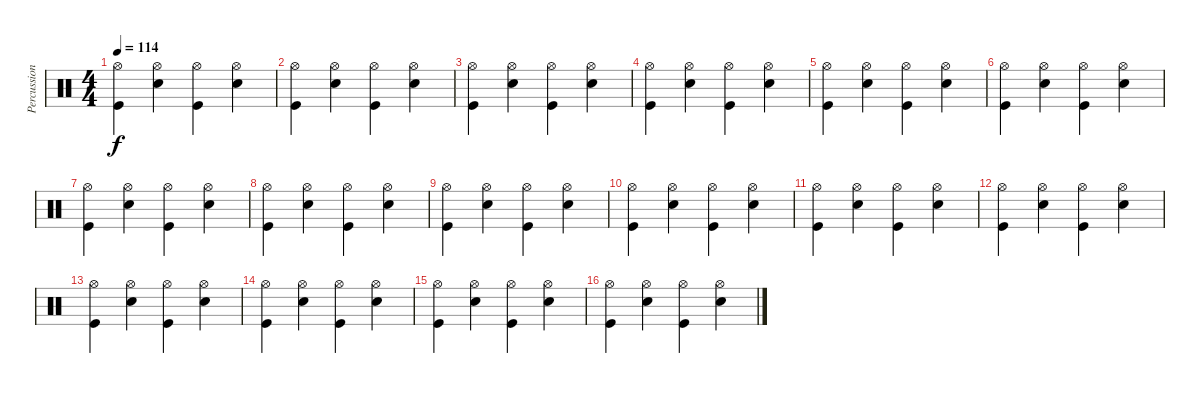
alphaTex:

\track ("Percussion" "Percussion") {solo instrument percussion}
\staff {score}
\articulation defaults
\ts (4 4)
\tempo 114
\clef neutral
\ks c
("Hi-Hat (open)" "Kick (hit)").4{dy f} ("Hi-Hat (open)" "Electric Snare (hit)").4 ("Hi-Hat (open)" "Kick (hit)").4 ("Hi-Hat (open)" "Electric Snare (hit)").4 |
("Hi-Hat (open)" "Kick (hit)").4 ("Hi-Hat (open)" "Electric Snare (hit)").4 ("Hi-Hat (open)" "Kick (hit)").4 ("Hi-Hat (open)" "Electric Snare (hit)").4 |
("Hi-Hat (open)" "Kick (hit)").4 ("Hi-Hat (open)" "Electric Snare (hit)").4 ("Hi-Hat (open)" "Kick (hit)").4 ("Hi-Hat (open)" "Electric Snare (hit)").4 |
("Hi-Hat (open)" "Kick (hit)").4 ("Hi-Hat (open)" "Electric Snare (hit)").4 ("Hi-Hat (open)" "Kick (hit)").4 ("Hi-Hat (open)" "Electric Snare (hit)").4 |
("Hi-Hat (open)" "Kick (hit)").4 ("Hi-Hat (open)" "Electric Snare (hit)").4 ("Hi-Hat (open)" "Kick (hit)").4 ("Hi-Hat (open)" "Electric Snare (hit)").4 |
("Hi-Hat (open)" "Kick (hit)").4 ("Hi-Hat (open)" "Electric Snare (hit)").4 ("Hi-Hat (open)" "Kick (hit)").4 ("Hi-Hat (open)" "Electric Snare (hit)").4 |
("Hi-Hat (open)" "Kick (hit)").4 ("Hi-Hat (open)" "Electric Snare (hit)").4 ("Hi-Hat (open)" "Kick (hit)").4 ("Hi-Hat (open)" "Electric Snare (hit)").4 |
("Hi-Hat (open)" "Kick (hit)").4 ("Hi-Hat (open)" "Electric Snare (hit)").4 ("Hi-Hat (open)" "Kick (hit)").4 ("Hi-Hat (open)" "Electric Snare (hit)").4 |
("Hi-Hat (open)" "Kick (hit)").4 ("Hi-Hat (open)" "Electric Snare (hit)").4 ("Hi-Hat (open)" "Kick (hit)").4 ("Hi-Hat (open)" "Electric Snare (hit)").4 |
("Hi-Hat (open)" "Kick (hit)").4 ("Hi-Hat (open)" "Electric Snare (hit)").4 ("Hi-Hat (open)" "Kick (hit)").4 ("Hi-Hat (open)" "Electric Snare (hit)").4 |
("Hi-Hat (open)" "Kick (hit)").4 ("Hi-Hat (open)" "Electric Snare (hit)").4 ("Hi-Hat (open)" "Kick (hit)").4 ("Hi-Hat (open)" "Electric Snare (hit)").4 |
("Hi-Hat (open)" "Kick (hit)").4 ("Hi-Hat (open)" "Electric Snare (hit)").4 ("Hi-Hat (open)" "Kick (hit)").4 ("Hi-Hat (open)" "Electric Snare (hit)").4 |
("Hi-Hat (open)" "Kick (hit)").4 ("Hi-Hat (open)" "Electric Snare (hit)").4 ("Hi-Hat (open)" "Kick (hit)").4 ("Hi-Hat (open)" "Electric Snare (hit)").4 |
("Hi-Hat (open)" "Kick (hit)").4 ("Hi-Hat (open)" "Electric Snare (hit)").4 ("Hi-Hat (open)" "Kick (hit)").4 ("Hi-Hat (open)" "Electric Snare (hit)").4 |
("Hi-Hat (open)" "Kick (hit)").4 ("Hi-Hat (open)" "Electric Snare (hit)").4 ("Hi-Hat (open)" "Kick (hit)").4 ("Hi-Hat (open)" "Electric Snare (hit)").4 |
("Hi-Hat (open)" "Kick (hit)").4 ("Hi-Hat (open)" "Electric Snare (hit)").4 ("Hi-Hat (open)" "Kick (hit)").4 ("Hi-Hat (open)" "Electric Snare (hit)").4
